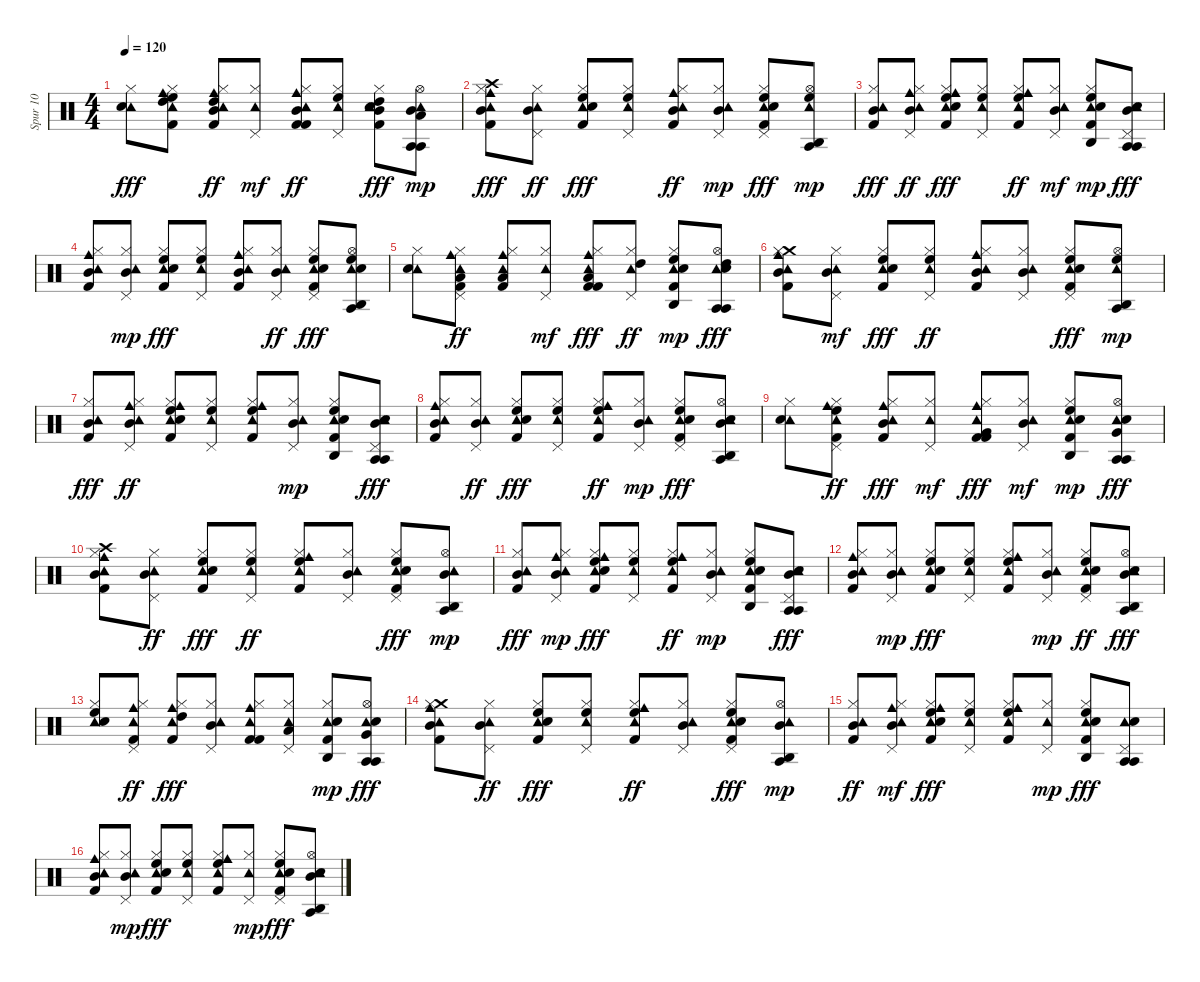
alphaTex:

\track ("Spur 10" "Spur 10") {instrument percussion}
\staff {score}
\articulation defaults
\ts (4 4)
\tempo 120
\clef neutral
\ks c
("Tambourine (hit)" "Electric Snare (hit)" "Hi-Hat (closed)").8{dy fff} ("Tambourine (hit)" "Cowbell medium (hit)" "Hi-Hat (closed)" "Kick (hit) 2" "High Floor Tom (hit)" "High Tom (hit)").8 ("Tambourine (hit)" "Hi-Hat (closed)" "Cowbell medium (hit)" "Kick (hit) 2" "High Tom (hit)" "Mid Tom (hit)").8{dy ff} ("Tambourine (hit)" "Hi-Hat (closed)" "Pedal Hi-Hat (hit)").8{dy mf} ("Tambourine (hit)" "Cowbell medium (hit)" "Kick (hit) 2" "Hi-Hat (closed)" "Kick (hit) 2" "Mid Tom (hit)").8{dy ff} ("Tambourine (hit)" "Hi-Hat (closed)" "Pedal Hi-Hat (hit)" "High Floor Tom (hit)").8 ("Tambourine (hit)" "High Tom (hit)" "Hi-Hat (closed)" "Kick (hit) 2" "Electric Snare (hit)" "Mid Tom (hit)").8{dy fff} ("Agogo tow (hit)" "Tambourine (hit)" "Hi-Hat (open)" "Mid Tom (hit)" "Low Tom (hit)" "Agogo tow (hit)").8{dy mp} |
("Tambourine (hit)" "Cowbell medium (hit)" "Mid Tom (hit)" "Crash high (hit)" "Hi-Hat (closed)" "Kick (hit) 2").8{dy fff} ("Tambourine (hit)" "Hi-Hat (closed)" "Pedal Hi-Hat (hit)" "Mid Tom (hit)").8{dy ff} ("Tambourine (hit)" "High Floor Tom (hit)" "Electric Snare (hit)" "Kick (hit) 2" "Hi-Hat (closed)").8{dy fff} ("Tambourine (hit)" "High Floor Tom (hit)" "Hi-Hat (closed)" "Pedal Hi-Hat (hit)").8 ("Tambourine (hit)" "Cowbell medium (hit)" "Kick (hit) 2" "Hi-Hat (closed)" "Mid Tom (hit)").8{dy ff} ("Tambourine (hit)" "Hi-Hat (closed)" "Pedal Hi-Hat (hit)" "Mid Tom (hit)").8{dy mp} ("Tambourine (hit)" "High Floor Tom (hit)" "Kick (hit) 2" "Electric Snare (hit)" "Hi-Hat (closed)" "Pedal Hi-Hat (hit)").8{dy fff} ("Agogo high (hit)" "Tambourine (hit)" "High Floor Tom (hit)" "Hi-Hat (open)" "Agogo tow (hit)").8{dy mp} |
("Tambourine (hit)" "Mid Tom (hit)" "Kick (hit) 2" "Hi-Hat (closed)").8{dy fff} ("Cowbell medium (hit)" "Tambourine (hit)" "Hi-Hat (closed)" "Pedal Hi-Hat (hit)" "Mid Tom (hit)").8{dy ff} ("Tambourine (hit)" "Hi-Hat (closed)" "Kick (hit) 2" "Electric Snare (hit)" "High Floor Tom (hit)" "Cowbell medium (hit)").8{dy fff} ("Tambourine (hit)" "Hi-Hat (closed)" "High Floor Tom (hit)" "Pedal Hi-Hat (hit)").8 ("Cowbell medium (hit)" "Tambourine (hit)" "Kick (hit) 2" "Hi-Hat (closed)" "High Floor Tom (hit)").8{dy ff} ("Tambourine (hit)" "Hi-Hat (closed)" "Pedal Hi-Hat (hit)" "Mid Tom (hit)").8{dy mf} ("Tambourine (hit)" "Electric Snare (hit)" "Kick (hit) 2" "Hi-Hat (closed)" "High Floor Tom (hit)" "Agogo high (hit)").8{dy mp} ("Agogo tow (hit)" "Tambourine (hit)" "Pedal Hi-Hat (hit)" "Mid Tom (hit)" "Agogo tow (hit)" "Electric Snare (hit)").8{dy fff} |
("Cowbell medium (hit)" "Tambourine (hit)" "Kick (hit) 2" "Hi-Hat (closed)" "Mid Tom (hit)").8 ("Tambourine (hit)" "Hi-Hat (closed)" "Mid Tom (hit)" "Pedal Hi-Hat (hit)").8{dy mp} ("Tambourine (hit)" "High Floor Tom (hit)" "Electric Snare (hit)" "Kick (hit) 2" "Hi-Hat (closed)").8{dy fff} ("Tambourine (hit)" "Hi-Hat (closed)" "High Floor Tom (hit)" "Pedal Hi-Hat (hit)").8 ("Cowbell medium (hit)" "Tambourine (hit)" "Hi-Hat (closed)" "Kick (hit) 2" "Mid Tom (hit)").8 ("Tambourine (hit)" "Hi-Hat (closed)" "Pedal Hi-Hat (hit)" "Mid Tom (hit)").8{dy ff} ("Tambourine (hit)" "Kick (hit) 2" "Electric Snare (hit)" "Hi-Hat (closed)" "High Floor Tom (hit)" "Pedal Hi-Hat (hit)").8{dy fff} ("Agogo high (hit)" "Tambourine (hit)" "Hi-Hat (open)" "High Floor Tom (hit)" "Agogo tow (hit)" "Electric Snare (hit)").8 |
("Tambourine (hit)" "Electric Snare (hit)" "Hi-Hat (closed)").8 ("Tambourine (hit)" "Cowbell medium (hit)" "Hi-Hat (closed)" "Kick (hit) 2" "Low Tom (hit)" "Pedal Hi-Hat (hit)").8{dy ff} ("Tambourine (hit)" "Hi-Hat (closed)" "Cowbell medium (hit)" "Kick (hit) 2" "Low Tom (hit)").8 ("Tambourine (hit)" "Hi-Hat (closed)" "Pedal Hi-Hat (hit)").8{dy mf} ("Tambourine (hit)" "Cowbell medium (hit)" "Kick (hit) 2" "Hi-Hat (closed)" "Kick (hit) 2" "Low Tom (hit)").8{dy fff} ("Tambourine (hit)" "Hi-Hat (closed)" "Pedal Hi-Hat (hit)" "High Tom (hit)").8{dy ff} ("Tambourine (hit)" "Hi-Hat (closed)" "Kick (hit) 2" "Electric Snare (hit)" "High Floor Tom (hit)" "Agogo high (hit)").8{dy mp} ("Agogo tow (hit)" "Tambourine (hit)" "Hi-Hat (open)" "High Tom (hit)" "Agogo tow (hit)" "Electric Snare (hit)").8{dy fff} |
("Tambourine (hit)" "Cowbell medium (hit)" "Mid Tom (hit)" "Crash medium (hit)" "Hi-Hat (closed)" "Kick (hit) 2").8 ("Tambourine (hit)" "Hi-Hat (closed)" "Mid Tom (hit)" "Pedal Hi-Hat (hit)").8{dy mf} ("Tambourine (hit)" "High Floor Tom (hit)" "Electric Snare (hit)" "Kick (hit) 2" "Hi-Hat (closed)").8{dy fff} ("Tambourine (hit)" "High Floor Tom (hit)" "Hi-Hat (closed)" "Pedal Hi-Hat (hit)").8{dy ff} ("Tambourine (hit)" "Cowbell medium (hit)" "Kick (hit) 2" "Hi-Hat (closed)" "Mid Tom (hit)").8 ("Tambourine (hit)" "Hi-Hat (closed)" "Mid Tom (hit)" "Pedal Hi-Hat (hit)").8 ("Tambourine (hit)" "High Floor Tom (hit)" "Kick (hit) 2" "Electric Snare (hit)" "Hi-Hat (closed)" "Pedal Hi-Hat (hit)").8{dy fff} ("Agogo high (hit)" "Tambourine (hit)" "Hi-Hat (open)" "High Floor Tom (hit)" "Agogo tow (hit)").8{dy mp} |
("Tambourine (hit)" "Mid Tom (hit)" "Kick (hit) 2" "Hi-Hat (closed)").8{dy fff} ("Cowbell medium (hit)" "Tambourine (hit)" "Hi-Hat (closed)" "Pedal Hi-Hat (hit)" "Mid Tom (hit)").8{dy ff} ("Tambourine (hit)" "Hi-Hat (closed)" "Kick (hit) 2" "Electric Snare (hit)" "High Floor Tom (hit)" "Cowbell medium (hit)").8 ("Tambourine (hit)" "Hi-Hat (closed)" "High Floor Tom (hit)" "Pedal Hi-Hat (hit)").8 ("Cowbell medium (hit)" "Tambourine (hit)" "Kick (hit) 2" "Hi-Hat (closed)" "High Floor Tom (hit)").8 ("Tambourine (hit)" "Hi-Hat (closed)" "Pedal Hi-Hat (hit)" "Mid Tom (hit)").8{dy mp} ("Tambourine (hit)" "High Floor Tom (hit)" "Electric Snare (hit)" "Kick (hit) 2" "Hi-Hat (closed)" "Agogo high (hit)").8 ("Agogo tow (hit)" "Tambourine (hit)" "Mid Tom (hit)" "Pedal Hi-Hat (hit)" "Agogo tow (hit)" "Electric Snare (hit)").8{dy fff} |
("Tambourine (hit)" "Cowbell medium (hit)" "Mid Tom (hit)" "Kick (hit) 2" "Hi-Hat (closed)").8 ("Tambourine (hit)" "Hi-Hat (closed)" "Mid Tom (hit)" "Pedal Hi-Hat (hit)").8{dy ff} ("Tambourine (hit)" "High Floor Tom (hit)" "Electric Snare (hit)" "Kick (hit) 2" "Hi-Hat (closed)").8{dy fff} ("Tambourine (hit)" "High Floor Tom (hit)" "Hi-Hat (closed)" "Pedal Hi-Hat (hit)").8 ("Tambourine (hit)" "Cowbell medium (hit)" "Hi-Hat (closed)" "Kick (hit) 2" "High Floor Tom (hit)").8{dy ff} ("Tambourine (hit)" "Hi-Hat (closed)" "Pedal Hi-Hat (hit)" "Mid Tom (hit)").8{dy mp} ("Tambourine (hit)" "Kick (hit) 2" "Electric Snare (hit)" "Hi-Hat (closed)" "High Floor Tom (hit)" "Pedal Hi-Hat (hit)").8{dy fff} ("Agogo high (hit)" "Tambourine (hit)" "Hi-Hat (open)" "Mid Tom (hit)" "Agogo tow (hit)" "Electric Snare (hit)").8 |
("Tambourine (hit)" "Electric Snare (hit)" "Hi-Hat (closed)").8 ("Tambourine (hit)" "Cowbell medium (hit)" "Hi-Hat (closed)" "Kick (hit) 2" "High Floor Tom (hit)" "Pedal Hi-Hat (hit)").8{dy ff} ("Tambourine (hit)" "Hi-Hat (closed)" "Cowbell medium (hit)" "Kick (hit) 2" "Mid Tom (hit)").8{dy fff} ("Tambourine (hit)" "Hi-Hat (closed)" "Pedal Hi-Hat (hit)").8{dy mf} ("Tambourine (hit)" "Cowbell medium (hit)" "Kick (hit) 2" "Hi-Hat (closed)" "Kick (hit) 2" "Very Low Tom (hit)").8{dy fff} ("Tambourine (hit)" "Hi-Hat (closed)" "Mid Tom (hit)" "Pedal Hi-Hat (hit)").8{dy mf} ("Tambourine (hit)" "High Floor Tom (hit)" "Hi-Hat (closed)" "Kick (hit) 2" "Electric Snare (hit)" "Agogo high (hit)").8{dy mp} ("Agogo tow (hit)" "Tambourine (hit)" "Very Low Tom (hit)" "Hi-Hat (open)" "Agogo tow (hit)" "Electric Snare (hit)").8{dy fff} |
("Tambourine (hit)" "Cowbell medium (hit)" "Mid Tom (hit)" "Crash high (hit)" "Hi-Hat (closed)" "Kick (hit) 2").8 ("Tambourine (hit)" "Hi-Hat (closed)" "Pedal Hi-Hat (hit)" "Mid Tom (hit)").8{dy ff} ("Tambourine (hit)" "High Floor Tom (hit)" "Electric Snare (hit)" "Kick (hit) 2" "Hi-Hat (closed)").8{dy fff} ("Tambourine (hit)" "High Floor Tom (hit)" "Hi-Hat (closed)" "Pedal Hi-Hat (hit)").8{dy ff} ("Tambourine (hit)" "Cowbell medium (hit)" "Kick (hit) 2" "Hi-Hat (closed)" "High Floor Tom (hit)").8 ("Tambourine (hit)" "Hi-Hat (closed)" "Pedal Hi-Hat (hit)" "Mid Tom (hit)").8 ("Tambourine (hit)" "Kick (hit) 2" "Electric Snare (hit)" "Hi-Hat (closed)" "High Floor Tom (hit)" "Pedal Hi-Hat (hit)").8{dy fff} ("Agogo high (hit)" "Tambourine (hit)" "Hi-Hat (open)" "Mid Tom (hit)" "Agogo tow (hit)").8{dy mp} |
("Tambourine (hit)" "Mid Tom (hit)" "Kick (hit) 2" "Hi-Hat (closed)").8{dy fff} ("Cowbell medium (hit)" "Tambourine (hit)" "Hi-Hat (closed)" "Mid Tom (hit)" "Pedal Hi-Hat (hit)").8{dy mp} ("Tambourine (hit)" "High Floor Tom (hit)" "Hi-Hat (closed)" "Kick (hit) 2" "Electric Snare (hit)" "Cowbell medium (hit)").8{dy fff} ("Tambourine (hit)" "Hi-Hat (closed)" "High Floor Tom (hit)" "Pedal Hi-Hat (hit)").8 ("Cowbell medium (hit)" "Tambourine (hit)" "Kick (hit) 2" "Hi-Hat (closed)" "High Floor Tom (hit)").8{dy ff} ("Tambourine (hit)" "Hi-Hat (closed)" "Pedal Hi-Hat (hit)" "Mid Tom (hit)").8{dy mp} ("Tambourine (hit)" "Electric Snare (hit)" "Kick (hit) 2" "Hi-Hat (closed)" "High Floor Tom (hit)" "Agogo high (hit)").8 ("Agogo tow (hit)" "Tambourine (hit)" "Pedal Hi-Hat (hit)" "Mid Tom (hit)" "Agogo tow (hit)" "Electric Snare (hit)").8{dy fff} |
("Cowbell medium (hit)" "Tambourine (hit)" "Kick (hit) 2" "Hi-Hat (closed)" "Mid Tom (hit)").8 ("Tambourine (hit)" "Hi-Hat (closed)" "Mid Tom (hit)" "Pedal Hi-Hat (hit)").8{dy mp} ("Tambourine (hit)" "High Floor Tom (hit)" "Electric Snare (hit)" "Kick (hit) 2" "Hi-Hat (closed)").8{dy fff} ("Tambourine (hit)" "Hi-Hat (closed)" "High Floor Tom (hit)" "Pedal Hi-Hat (hit)").8 ("Cowbell medium (hit)" "Tambourine (hit)" "Hi-Hat (closed)" "Kick (hit) 2" "High Floor Tom (hit)").8 ("Tambourine (hit)" "Hi-Hat (closed)" "Pedal Hi-Hat (hit)" "Mid Tom (hit)").8{dy mp} ("Tambourine (hit)" "Kick (hit) 2" "Electric Snare (hit)" "Hi-Hat (closed)" "High Floor Tom (hit)" "Pedal Hi-Hat (hit)").8{dy ff} ("Agogo high (hit)" "Tambourine (hit)" "Hi-Hat (open)" "Mid Tom (hit)" "Agogo tow (hit)" "Electric Snare (hit)").8{dy fff} |
("Tambourine (hit)" "Electric Snare (hit)" "Hi-Hat (closed)" "High Floor Tom (hit)").8 ("Tambourine (hit)" "Cowbell medium (hit)" "Hi-Hat (closed)" "Kick (hit) 2" "Pedal Hi-Hat (hit)").8{dy ff} ("Tambourine (hit)" "High Tom (hit)" "Hi-Hat (closed)" "Cowbell medium (hit)" "Kick (hit) 2").8{dy fff} ("Tambourine (hit)" "Hi-Hat (closed)" "Mid Tom (hit)" "Pedal Hi-Hat (hit)").8 ("Tambourine (hit)" "Cowbell medium (hit)" "Kick (hit) 2" "Hi-Hat (closed)" "Kick (hit) 2").8 ("Tambourine (hit)" "Hi-Hat (closed)" "Low Tom (hit)" "Pedal Hi-Hat (hit)").8 ("Tambourine (hit)" "Hi-Hat (closed)" "Kick (hit) 2" "Electric Snare (hit)" "Agogo high (hit)").8{dy mp} ("Agogo tow (hit)" "Tambourine (hit)" "Very Low Tom (hit)" "Hi-Hat (open)" "Agogo tow (hit)" "Electric Snare (hit)").8{dy fff} |
("Tambourine (hit)" "Cowbell medium (hit)" "Mid Tom (hit)" "Crash medium (hit)" "Hi-Hat (closed)" "Kick (hit) 2").8 ("Tambourine (hit)" "Hi-Hat (closed)" "Pedal Hi-Hat (hit)" "Mid Tom (hit)").8{dy ff} ("Tambourine (hit)" "High Floor Tom (hit)" "Electric Snare (hit)" "Kick (hit) 2" "Hi-Hat (closed)").8{dy fff} ("Tambourine (hit)" "High Floor Tom (hit)" "Hi-Hat (closed)" "Pedal Hi-Hat (hit)").8 ("Tambourine (hit)" "Cowbell medium (hit)" "Kick (hit) 2" "Hi-Hat (closed)" "High Floor Tom (hit)").8{dy ff} ("Tambourine (hit)" "Hi-Hat (closed)" "Pedal Hi-Hat (hit)" "Mid Tom (hit)").8 ("Tambourine (hit)" "Kick (hit) 2" "Electric Snare (hit)" "Hi-Hat (closed)" "High Floor Tom (hit)" "Pedal Hi-Hat (hit)").8{dy fff} ("Agogo high (hit)" "Tambourine (hit)" "Hi-Hat (open)" "Mid Tom (hit)" "Agogo tow (hit)").8{dy mp} |
("Tambourine (hit)" "Kick (hit) 2" "Hi-Hat (closed)" "Mid Tom (hit)").8{dy ff} ("Cowbell medium (hit)" "Tambourine (hit)" "Hi-Hat (closed)" "Pedal Hi-Hat (hit)" "Mid Tom (hit)").8{dy mf} ("Tambourine (hit)" "Hi-Hat (closed)" "Kick (hit) 2" "Electric Snare (hit)" "High Floor Tom (hit)" "Cowbell medium (hit)").8{dy fff} ("Tambourine (hit)" "Hi-Hat (closed)" "High Floor Tom (hit)" "Pedal Hi-Hat (hit)").8 ("Cowbell medium (hit)" "Tambourine (hit)" "Kick (hit) 2" "Hi-Hat (closed)" "High Floor Tom (hit)").8 ("Tambourine (hit)" "Hi-Hat (closed)" "Pedal Hi-Hat (hit)").8{dy mp} ("Tambourine (hit)" "Electric Snare (hit)" "Kick (hit) 2" "Hi-Hat (closed)" "Agogo high (hit)" "High Floor Tom (hit)").8{dy fff} ("Agogo tow (hit)" "Tambourine (hit)" "Pedal Hi-Hat (hit)" "Agogo tow (hit)" "Electric Snare (hit)").8 |
("Tambourine (hit)" "Cowbell medium (hit)" "Kick (hit) 2" "Hi-Hat (closed)" "Mid Tom (hit)").8 ("Tambourine (hit)" "Hi-Hat (closed)" "Mid Tom (hit)" "Pedal Hi-Hat (hit)").8{dy mp} ("Tambourine (hit)" "High Floor Tom (hit)" "Electric Snare (hit)" "Kick (hit) 2" "Hi-Hat (closed)").8{dy fff} ("Tambourine (hit)" "High Floor Tom (hit)" "Hi-Hat (closed)" "Pedal Hi-Hat (hit)").8 ("Tambourine (hit)" "Cowbell medium (hit)" "Hi-Hat (closed)" "Kick (hit) 2" "High Floor Tom (hit)").8 ("Tambourine (hit)" "Hi-Hat (closed)" "Pedal Hi-Hat (hit)").8{dy mp} ("Tambourine (hit)" "High Floor Tom (hit)" "Kick (hit) 2" "Electric Snare (hit)" "Hi-Hat (closed)" "Pedal Hi-Hat (hit)").8{dy fff} ("Agogo high (hit)" "Tambourine (hit)" "Hi-Hat (open)" "Agogo tow (hit)" "Electric Snare (hit)" "Mid Tom (hit)").8
